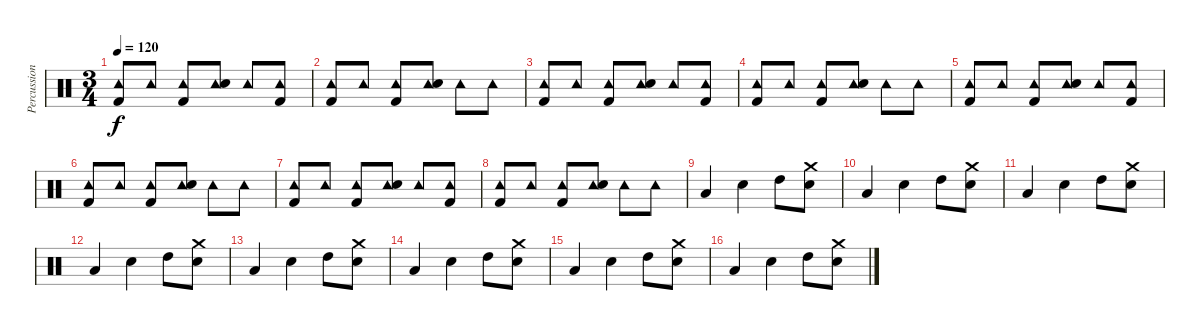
\track ("Percussions" "Percussion") {instrument percussion}
\staff {score}
\articulation defaults
\ts (3 4)
\tempo 120
\clef neutral
\ks c
("Tambourine (hit)" "Kick (hit) 2").8{dy f} "Tambourine (hit)".8 ("Tambourine (hit)" "Kick (hit) 2").8 ("Tambourine (hit)" "Electric Snare (hit)").8 "Tambourine (hit)".8 ("Tambourine (hit)" "Kick (hit) 2").8 |
("Tambourine (hit)" "Kick (hit) 2").8 "Tambourine (hit)".8 ("Tambourine (hit)" "Kick (hit) 2").8 ("Tambourine (hit)" "Electric Snare (hit)").8 "Tambourine (hit)".8 "Tambourine (hit)".8 |
("Tambourine (hit)" "Kick (hit) 2").8 "Tambourine (hit)".8 ("Tambourine (hit)" "Kick (hit) 2").8 ("Tambourine (hit)" "Electric Snare (hit)").8 "Tambourine (hit)".8 ("Tambourine (hit)" "Kick (hit) 2").8 |
("Tambourine (hit)" "Kick (hit) 2").8 "Tambourine (hit)".8 ("Tambourine (hit)" "Kick (hit) 2").8 ("Tambourine (hit)" "Electric Snare (hit)").8 "Tambourine (hit)".8 "Tambourine (hit)".8 |
("Tambourine (hit)" "Kick (hit) 2").8 "Tambourine (hit)".8 ("Tambourine (hit)" "Kick (hit) 2").8 ("Tambourine (hit)" "Electric Snare (hit)").8 "Tambourine (hit)".8 ("Tambourine (hit)" "Kick (hit) 2").8 |
("Tambourine (hit)" "Kick (hit) 2").8 "Tambourine (hit)".8 ("Tambourine (hit)" "Kick (hit) 2").8 ("Tambourine (hit)" "Electric Snare (hit)").8 "Tambourine (hit)".8 "Tambourine (hit)".8 |
("Tambourine (hit)" "Kick (hit) 2").8 "Tambourine (hit)".8 ("Tambourine (hit)" "Kick (hit) 2").8 ("Tambourine (hit)" "Electric Snare (hit)").8 "Tambourine (hit)".8 ("Tambourine (hit)" "Kick (hit) 2").8 |
("Tambourine (hit)" "Kick (hit) 2").8 "Tambourine (hit)".8 ("Tambourine (hit)" "Kick (hit) 2").8 ("Tambourine (hit)" "Electric Snare (hit)").8 "Tambourine (hit)".8 "Tambourine (hit)".8 |
"Low Floor Tom (hit)".4 "Electric Snare (hit)".4 "High Tom (hit)".8 ("Electric Snare (hit)" "Crash medium (hit)").8 |
"Low Floor Tom (hit)".4 "Electric Snare (hit)".4 "High Tom (hit)".8 ("Electric Snare (hit)" "Crash medium (hit)").8 |
"Low Floor Tom (hit)".4 "Electric Snare (hit)".4 "High Tom (hit)".8 ("Electric Snare (hit)" "Crash medium (hit)").8 |
"Low Floor Tom (hit)".4 "Electric Snare (hit)".4 "High Tom (hit)".8 ("Electric Snare (hit)" "Crash medium (hit)").8 |
"Low Floor Tom (hit)".4 "Electric Snare (hit)".4 "High Tom (hit)".8 ("Electric Snare (hit)" "Crash medium (hit)").8 |
"Low Floor Tom (hit)".4 "Electric Snare (hit)".4 "High Tom (hit)".8 ("Electric Snare (hit)" "Crash medium (hit)").8 |
"Low Floor Tom (hit)".4 "Electric Snare (hit)".4 "High Tom (hit)".8 ("Electric Snare (hit)" "Crash medium (hit)").8 |
"Low Floor Tom (hit)".4 "Electric Snare (hit)".4 "High Tom (hit)".8 ("Electric Snare (hit)" "Crash medium (hit)").8
